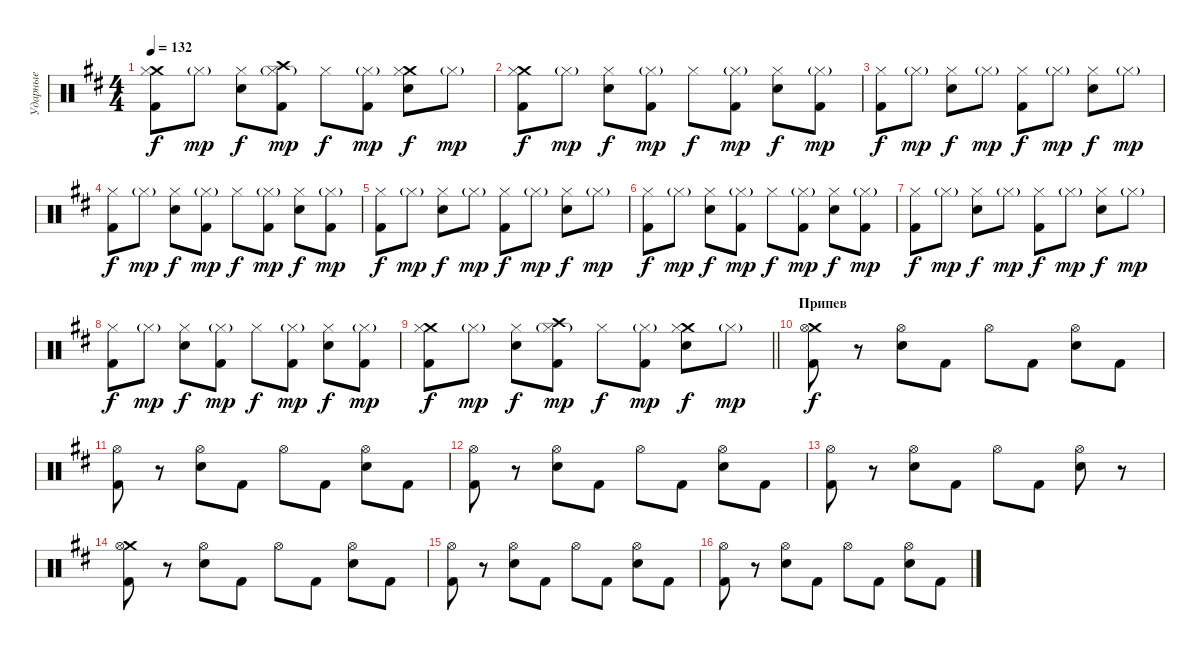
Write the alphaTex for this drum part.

\track ("Ударные" "Ударные") {instrument percussion}
\staff {score}
\articulation defaults
\ts (4 4)
\tempo 132
\clef neutral
\ks bminor
("Crash medium (hit)" "Kick (hit) 2" "Hi-Hat (closed)").8{dy f} "Hi-Hat (closed)"{g}.8{dy mp} ("Electric Snare (hit)" "Hi-Hat (closed)").8{dy f} ("Crash high (hit)" "Kick (hit) 2" "Hi-Hat (closed)"{g}).8{dy mp} "Hi-Hat (closed)".8{dy f} ("Kick (hit) 2" "Hi-Hat (closed)"{g}).8{dy mp} ("Crash medium (hit)" "Electric Snare (hit)" "Hi-Hat (closed)").8{dy f} "Hi-Hat (closed)"{g}.8{dy mp} |
("Crash medium (hit)" "Kick (hit) 2" "Hi-Hat (closed)").8{dy f} "Hi-Hat (closed)"{g}.8{dy mp} ("Electric Snare (hit)" "Hi-Hat (closed)").8{dy f} ("Kick (hit) 2" "Hi-Hat (closed)"{g}).8{dy mp} "Hi-Hat (closed)".8{dy f} ("Kick (hit) 2" "Hi-Hat (closed)"{g}).8{dy mp} ("Electric Snare (hit)" "Hi-Hat (closed)").8{dy f} ("Kick (hit) 2" "Hi-Hat (closed)"{g}).8{dy mp} |
("Kick (hit) 2" "Hi-Hat (closed)").8{dy f} "Hi-Hat (closed)"{g}.8{dy mp} ("Electric Snare (hit)" "Hi-Hat (closed)").8{dy f} "Hi-Hat (closed)"{g}.8{dy mp} ("Kick (hit) 2" "Hi-Hat (closed)").8{dy f} "Hi-Hat (closed)"{g}.8{dy mp} ("Electric Snare (hit)" "Hi-Hat (closed)").8{dy f} "Hi-Hat (closed)"{g}.8{dy mp} |
("Kick (hit) 2" "Hi-Hat (closed)").8{dy f} "Hi-Hat (closed)"{g}.8{dy mp} ("Electric Snare (hit)" "Hi-Hat (closed)").8{dy f} ("Kick (hit) 2" "Hi-Hat (closed)"{g}).8{dy mp} "Hi-Hat (closed)".8{dy f} ("Kick (hit) 2" "Hi-Hat (closed)"{g}).8{dy mp} ("Electric Snare (hit)" "Hi-Hat (closed)").8{dy f} ("Kick (hit) 2" "Hi-Hat (closed)"{g}).8{dy mp} |
("Kick (hit) 2" "Hi-Hat (closed)").8{dy f} "Hi-Hat (closed)"{g}.8{dy mp} ("Electric Snare (hit)" "Hi-Hat (closed)").8{dy f} "Hi-Hat (closed)"{g}.8{dy mp} ("Kick (hit) 2" "Hi-Hat (closed)").8{dy f} "Hi-Hat (closed)"{g}.8{dy mp} ("Electric Snare (hit)" "Hi-Hat (closed)").8{dy f} "Hi-Hat (closed)"{g}.8{dy mp} |
("Kick (hit) 2" "Hi-Hat (closed)").8{dy f} "Hi-Hat (closed)"{g}.8{dy mp} ("Electric Snare (hit)" "Hi-Hat (closed)").8{dy f} ("Kick (hit) 2" "Hi-Hat (closed)"{g}).8{dy mp} "Hi-Hat (closed)".8{dy f} ("Kick (hit) 2" "Hi-Hat (closed)"{g}).8{dy mp} ("Electric Snare (hit)" "Hi-Hat (closed)").8{dy f} ("Kick (hit) 2" "Hi-Hat (closed)"{g}).8{dy mp} |
("Kick (hit) 2" "Hi-Hat (closed)").8{dy f} "Hi-Hat (closed)"{g}.8{dy mp} ("Electric Snare (hit)" "Hi-Hat (closed)").8{dy f} "Hi-Hat (closed)"{g}.8{dy mp} ("Kick (hit) 2" "Hi-Hat (closed)").8{dy f} "Hi-Hat (closed)"{g}.8{dy mp} ("Electric Snare (hit)" "Hi-Hat (closed)").8{dy f} "Hi-Hat (closed)"{g}.8{dy mp} |
("Kick (hit) 2" "Hi-Hat (closed)").8{dy f} "Hi-Hat (closed)"{g}.8{dy mp} ("Electric Snare (hit)" "Hi-Hat (closed)").8{dy f} ("Kick (hit) 2" "Hi-Hat (closed)"{g}).8{dy mp} "Hi-Hat (closed)".8{dy f} ("Kick (hit) 2" "Hi-Hat (closed)"{g}).8{dy mp} ("Electric Snare (hit)" "Hi-Hat (closed)").8{dy f} ("Kick (hit) 2" "Hi-Hat (closed)"{g}).8{dy mp} |
\barLineRight lightlight
("Crash medium (hit)" "Kick (hit) 2" "Hi-Hat (closed)").8{dy f} "Hi-Hat (closed)"{g}.8{dy mp} ("Electric Snare (hit)" "Hi-Hat (closed)").8{dy f} ("Crash high (hit)" "Kick (hit) 2" "Hi-Hat (closed)"{g}).8{dy mp} "Hi-Hat (closed)".8{dy f} ("Kick (hit) 2" "Hi-Hat (closed)"{g}).8{dy mp} ("Crash medium (hit)" "Electric Snare (hit)" "Hi-Hat (closed)").8{dy f} "Hi-Hat (closed)"{g}.8{dy mp} |
\section ("" "Припев")
("Crash medium (hit)" "Kick (hit) 2" "Hi-Hat (open)").8{dy f} r.8 ("Electric Snare (hit)" "Hi-Hat (open)").8 "Kick (hit) 2".8 "Hi-Hat (open)".8 "Kick (hit) 2".8 ("Electric Snare (hit)" "Hi-Hat (open)").8 "Kick (hit) 2".8 |
("Kick (hit) 2" "Hi-Hat (open)").8 r.8 ("Electric Snare (hit)" "Hi-Hat (open)").8 "Kick (hit) 2".8 "Hi-Hat (open)".8 "Kick (hit) 2".8 ("Electric Snare (hit)" "Hi-Hat (open)").8 "Kick (hit) 2".8 |
("Kick (hit) 2" "Hi-Hat (open)").8 r.8 ("Electric Snare (hit)" "Hi-Hat (open)").8 "Kick (hit) 2".8 "Hi-Hat (open)".8 "Kick (hit) 2".8 ("Electric Snare (hit)" "Hi-Hat (open)").8 "Kick (hit) 2".8 |
("Kick (hit) 2" "Hi-Hat (open)").8 r.8 ("Electric Snare (hit)" "Hi-Hat (open)").8 "Kick (hit) 2".8 "Hi-Hat (open)".8 "Kick (hit) 2".8 ("Electric Snare (hit)" "Hi-Hat (open)").8 r.8 |
("Crash medium (hit)" "Kick (hit) 2" "Hi-Hat (open)").8 r.8 ("Electric Snare (hit)" "Hi-Hat (open)").8 "Kick (hit) 2".8 "Hi-Hat (open)".8 "Kick (hit) 2".8 ("Electric Snare (hit)" "Hi-Hat (open)").8 "Kick (hit) 2".8 |
("Kick (hit) 2" "Hi-Hat (open)").8 r.8 ("Electric Snare (hit)" "Hi-Hat (open)").8 "Kick (hit) 2".8 "Hi-Hat (open)".8 "Kick (hit) 2".8 ("Electric Snare (hit)" "Hi-Hat (open)").8 "Kick (hit) 2".8 |
("Kick (hit) 2" "Hi-Hat (open)").8 r.8 ("Electric Snare (hit)" "Hi-Hat (open)").8 "Kick (hit) 2".8 "Hi-Hat (open)".8 "Kick (hit) 2".8 ("Electric Snare (hit)" "Hi-Hat (open)").8 "Kick (hit) 2".8
